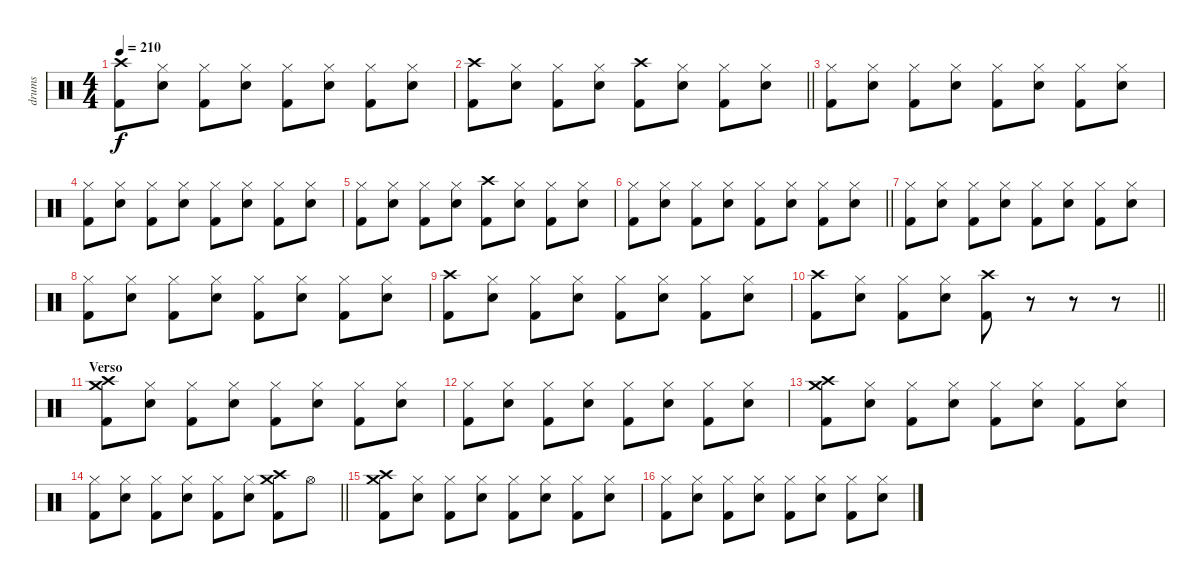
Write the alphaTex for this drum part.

\track ("drums" "drums") {instrument percussion}
\staff {score}
\articulation defaults
\ts (4 4)
\tempo 210
\clef neutral
\ks c
("Crash high (hit)" "Kick (hit) 2").8{dy f} ("Hi-Hat (closed)" "Electric Snare (hit)").8 ("Hi-Hat (closed)" "Kick (hit) 2").8 ("Hi-Hat (closed)" "Electric Snare (hit)").8 ("Hi-Hat (closed)" "Kick (hit) 2").8 ("Hi-Hat (closed)" "Electric Snare (hit)").8 ("Hi-Hat (closed)" "Kick (hit) 2").8 ("Hi-Hat (closed)" "Electric Snare (hit)").8 |
\barLineRight lightlight
("Crash high (hit)" "Kick (hit) 2").8 ("Hi-Hat (closed)" "Electric Snare (hit)").8 ("Hi-Hat (closed)" "Kick (hit) 2").8 ("Hi-Hat (closed)" "Electric Snare (hit)").8 ("Crash high (hit)" "Kick (hit) 2").8 ("Hi-Hat (closed)" "Electric Snare (hit)").8 ("Hi-Hat (closed)" "Kick (hit) 2").8 ("Hi-Hat (closed)" "Electric Snare (hit)").8 |
("Hi-Hat (closed)" "Kick (hit) 2").8 ("Hi-Hat (closed)" "Electric Snare (hit)").8 ("Hi-Hat (closed)" "Kick (hit) 2").8 ("Hi-Hat (closed)" "Electric Snare (hit)").8 ("Hi-Hat (closed)" "Kick (hit) 2").8 ("Hi-Hat (closed)" "Electric Snare (hit)").8 ("Hi-Hat (closed)" "Kick (hit) 2").8 ("Hi-Hat (closed)" "Electric Snare (hit)").8 |
("Hi-Hat (closed)" "Kick (hit) 2").8 ("Hi-Hat (closed)" "Electric Snare (hit)").8 ("Hi-Hat (closed)" "Kick (hit) 2").8 ("Hi-Hat (closed)" "Electric Snare (hit)").8 ("Hi-Hat (closed)" "Kick (hit) 2").8 ("Hi-Hat (closed)" "Electric Snare (hit)").8 ("Hi-Hat (closed)" "Kick (hit) 2").8 ("Hi-Hat (closed)" "Electric Snare (hit)").8 |
("Hi-Hat (closed)" "Kick (hit) 2").8 ("Hi-Hat (closed)" "Electric Snare (hit)").8 ("Hi-Hat (closed)" "Kick (hit) 2").8 ("Hi-Hat (closed)" "Electric Snare (hit)").8 ("Crash high (hit)" "Kick (hit) 2").8 ("Hi-Hat (closed)" "Electric Snare (hit)").8 ("Hi-Hat (closed)" "Kick (hit) 2").8 ("Hi-Hat (closed)" "Electric Snare (hit)").8 |
\barLineRight lightlight
("Hi-Hat (closed)" "Kick (hit) 2").8 ("Hi-Hat (closed)" "Electric Snare (hit)").8 ("Hi-Hat (closed)" "Kick (hit) 2").8 ("Hi-Hat (closed)" "Electric Snare (hit)").8 ("Hi-Hat (closed)" "Kick (hit) 2").8 ("Hi-Hat (closed)" "Electric Snare (hit)").8 ("Hi-Hat (closed)" "Kick (hit) 2").8 ("Hi-Hat (closed)" "Electric Snare (hit)").8 |
("Hi-Hat (closed)" "Kick (hit) 2").8 ("Hi-Hat (closed)" "Electric Snare (hit)").8 ("Hi-Hat (closed)" "Kick (hit) 2").8 ("Hi-Hat (closed)" "Electric Snare (hit)").8 ("Hi-Hat (closed)" "Kick (hit) 2").8 ("Hi-Hat (closed)" "Electric Snare (hit)").8 ("Hi-Hat (closed)" "Kick (hit) 2").8 ("Hi-Hat (closed)" "Electric Snare (hit)").8 |
("Hi-Hat (closed)" "Kick (hit) 2").8 ("Hi-Hat (closed)" "Electric Snare (hit)").8 ("Hi-Hat (closed)" "Kick (hit) 2").8 ("Hi-Hat (closed)" "Electric Snare (hit)").8 ("Hi-Hat (closed)" "Kick (hit) 2").8 ("Hi-Hat (closed)" "Electric Snare (hit)").8 ("Hi-Hat (closed)" "Kick (hit) 2").8 ("Hi-Hat (closed)" "Electric Snare (hit)").8 |
("Crash high (hit)" "Kick (hit) 2").8 ("Hi-Hat (closed)" "Electric Snare (hit)").8 ("Hi-Hat (closed)" "Kick (hit) 2").8 ("Hi-Hat (closed)" "Electric Snare (hit)").8 ("Hi-Hat (closed)" "Kick (hit) 2").8 ("Hi-Hat (closed)" "Electric Snare (hit)").8 ("Hi-Hat (closed)" "Kick (hit) 2").8 ("Hi-Hat (closed)" "Electric Snare (hit)").8 |
\barLineRight lightlight
("Crash high (hit)" "Kick (hit) 2").8 ("Hi-Hat (closed)" "Electric Snare (hit)").8 ("Hi-Hat (closed)" "Kick (hit) 2").8 ("Hi-Hat (closed)" "Electric Snare (hit)").8 ("Crash high (hit)" "Kick (hit) 2").8 r.8 r.8 r.8 |
\section ("" "Verso")
("Crash high (hit)" "Crash medium (hit)" "Kick (hit) 2").8 ("Hi-Hat (closed)" "Electric Snare (hit)").8 ("Hi-Hat (closed)" "Kick (hit) 2").8 ("Hi-Hat (closed)" "Electric Snare (hit)").8 ("Hi-Hat (closed)" "Kick (hit) 2").8 ("Hi-Hat (closed)" "Electric Snare (hit)").8 ("Hi-Hat (closed)" "Kick (hit) 2").8 ("Hi-Hat (closed)" "Electric Snare (hit)").8 |
("Hi-Hat (closed)" "Kick (hit) 2").8 ("Hi-Hat (closed)" "Electric Snare (hit)").8 ("Hi-Hat (closed)" "Kick (hit) 2").8 ("Hi-Hat (closed)" "Electric Snare (hit)").8 ("Hi-Hat (closed)" "Kick (hit) 2").8 ("Hi-Hat (closed)" "Electric Snare (hit)").8 ("Hi-Hat (closed)" "Kick (hit) 2").8 ("Hi-Hat (closed)" "Electric Snare (hit)").8 |
("Crash high (hit)" "Crash medium (hit)" "Kick (hit) 2").8 ("Hi-Hat (closed)" "Electric Snare (hit)").8 ("Hi-Hat (closed)" "Kick (hit) 2").8 ("Hi-Hat (closed)" "Electric Snare (hit)").8 ("Hi-Hat (closed)" "Kick (hit) 2").8 ("Hi-Hat (closed)" "Electric Snare (hit)").8 ("Hi-Hat (closed)" "Kick (hit) 2").8 ("Hi-Hat (closed)" "Electric Snare (hit)").8 |
\barLineRight lightlight
("Hi-Hat (closed)" "Kick (hit) 2").8 ("Hi-Hat (closed)" "Electric Snare (hit)").8 ("Hi-Hat (closed)" "Kick (hit) 2").8 ("Hi-Hat (closed)" "Electric Snare (hit)").8 ("Hi-Hat (closed)" "Kick (hit) 2").8 ("Hi-Hat (closed)" "Electric Snare (hit)").8 ("Crash high (hit)" "Crash medium (hit)" "Kick (hit) 2").8 "Hi-Hat (open)".8 |
("Crash high (hit)" "Crash medium (hit)" "Kick (hit) 2").8 ("Hi-Hat (closed)" "Electric Snare (hit)").8 ("Hi-Hat (closed)" "Kick (hit) 2").8 ("Hi-Hat (closed)" "Electric Snare (hit)").8 ("Hi-Hat (closed)" "Kick (hit) 2").8 ("Hi-Hat (closed)" "Electric Snare (hit)").8 ("Hi-Hat (closed)" "Kick (hit) 2").8 ("Hi-Hat (closed)" "Electric Snare (hit)").8 |
("Hi-Hat (closed)" "Kick (hit) 2").8 ("Hi-Hat (closed)" "Electric Snare (hit)").8 ("Hi-Hat (closed)" "Kick (hit) 2").8 ("Hi-Hat (closed)" "Electric Snare (hit)").8 ("Hi-Hat (closed)" "Kick (hit) 2").8 ("Hi-Hat (closed)" "Electric Snare (hit)").8 ("Hi-Hat (closed)" "Kick (hit) 2").8 ("Hi-Hat (closed)" "Electric Snare (hit)").8
